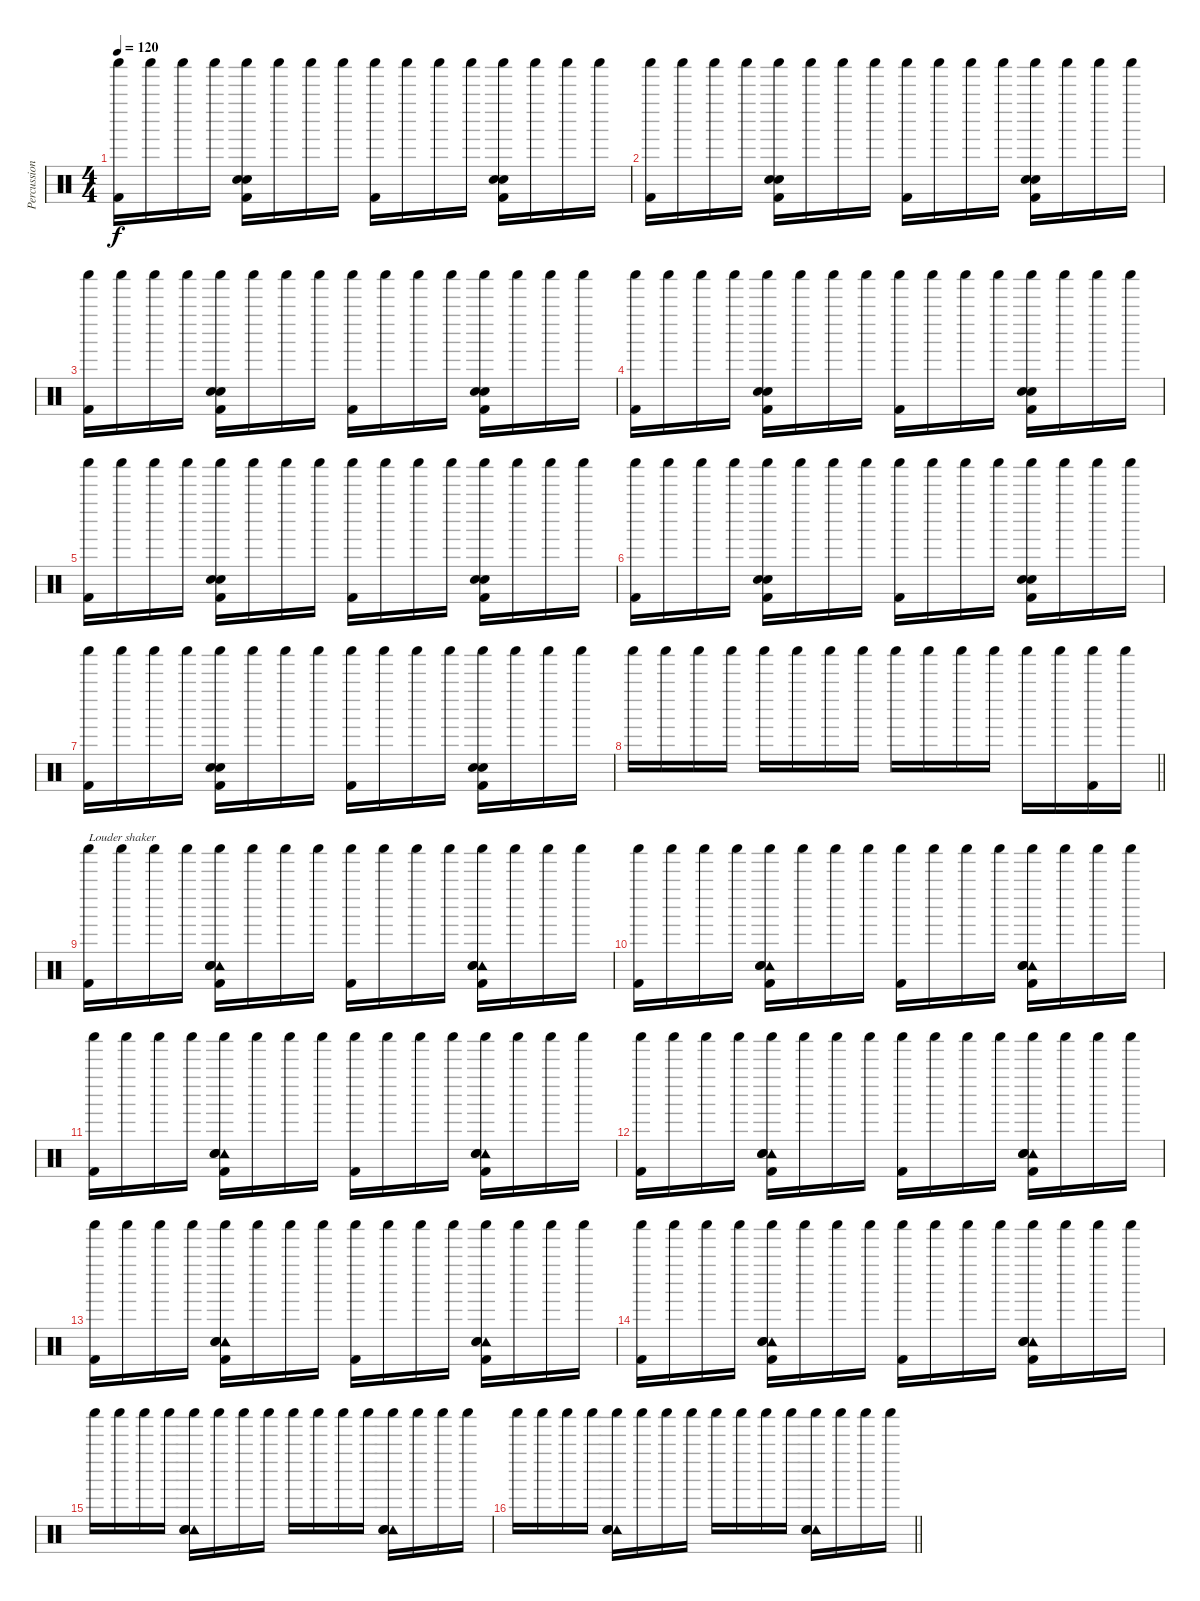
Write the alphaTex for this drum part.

\track ("Percussion" "Percussion") {instrument percussion}
\staff {score}
\articulation defaults
\ts (4 4)
\tempo 120
\clef neutral
\ks c
("Shaker (hit)" "Kick (hit) 2").16{dy f} "Shaker (hit)".16 "Shaker (hit)".16 "Shaker (hit)".16 ("Shaker (hit)" "Hand Clap (hit)" "Electric Snare (hit)" "Kick (hit) 2").16 "Shaker (hit)".16 "Shaker (hit)".16 "Shaker (hit)".16 ("Shaker (hit)" "Kick (hit) 2").16 "Shaker (hit)".16 "Shaker (hit)".16 "Shaker (hit)".16 ("Shaker (hit)" "Hand Clap (hit)" "Electric Snare (hit)" "Kick (hit) 2").16 "Shaker (hit)".16 "Shaker (hit)".16 "Shaker (hit)".16 |
("Shaker (hit)" "Kick (hit) 2").16 "Shaker (hit)".16 "Shaker (hit)".16 "Shaker (hit)".16 ("Shaker (hit)" "Hand Clap (hit)" "Electric Snare (hit)" "Kick (hit) 2").16 "Shaker (hit)".16 "Shaker (hit)".16 "Shaker (hit)".16 ("Shaker (hit)" "Kick (hit) 2").16 "Shaker (hit)".16 "Shaker (hit)".16 "Shaker (hit)".16 ("Shaker (hit)" "Hand Clap (hit)" "Electric Snare (hit)" "Kick (hit) 2").16 "Shaker (hit)".16 "Shaker (hit)".16 "Shaker (hit)".16 |
("Shaker (hit)" "Kick (hit) 2").16 "Shaker (hit)".16 "Shaker (hit)".16 "Shaker (hit)".16 ("Shaker (hit)" "Hand Clap (hit)" "Electric Snare (hit)" "Kick (hit) 2").16 "Shaker (hit)".16 "Shaker (hit)".16 "Shaker (hit)".16 ("Shaker (hit)" "Kick (hit) 2").16 "Shaker (hit)".16 "Shaker (hit)".16 "Shaker (hit)".16 ("Shaker (hit)" "Hand Clap (hit)" "Electric Snare (hit)" "Kick (hit) 2").16 "Shaker (hit)".16 "Shaker (hit)".16 "Shaker (hit)".16 |
("Shaker (hit)" "Kick (hit) 2").16 "Shaker (hit)".16 "Shaker (hit)".16 "Shaker (hit)".16 ("Shaker (hit)" "Hand Clap (hit)" "Electric Snare (hit)" "Kick (hit) 2").16 "Shaker (hit)".16 "Shaker (hit)".16 "Shaker (hit)".16 ("Shaker (hit)" "Kick (hit) 2").16 "Shaker (hit)".16 "Shaker (hit)".16 "Shaker (hit)".16 ("Shaker (hit)" "Hand Clap (hit)" "Electric Snare (hit)" "Kick (hit) 2").16 "Shaker (hit)".16 "Shaker (hit)".16 "Shaker (hit)".16 |
("Shaker (hit)" "Kick (hit) 2").16 "Shaker (hit)".16 "Shaker (hit)".16 "Shaker (hit)".16 ("Shaker (hit)" "Hand Clap (hit)" "Electric Snare (hit)" "Kick (hit) 2").16 "Shaker (hit)".16 "Shaker (hit)".16 "Shaker (hit)".16 ("Shaker (hit)" "Kick (hit) 2").16 "Shaker (hit)".16 "Shaker (hit)".16 "Shaker (hit)".16 ("Shaker (hit)" "Hand Clap (hit)" "Electric Snare (hit)" "Kick (hit) 2").16 "Shaker (hit)".16 "Shaker (hit)".16 "Shaker (hit)".16 |
("Shaker (hit)" "Kick (hit) 2").16 "Shaker (hit)".16 "Shaker (hit)".16 "Shaker (hit)".16 ("Shaker (hit)" "Hand Clap (hit)" "Electric Snare (hit)" "Kick (hit) 2").16 "Shaker (hit)".16 "Shaker (hit)".16 "Shaker (hit)".16 ("Shaker (hit)" "Kick (hit) 2").16 "Shaker (hit)".16 "Shaker (hit)".16 "Shaker (hit)".16 ("Shaker (hit)" "Hand Clap (hit)" "Electric Snare (hit)" "Kick (hit) 2").16 "Shaker (hit)".16 "Shaker (hit)".16 "Shaker (hit)".16 |
("Shaker (hit)" "Kick (hit) 2").16 "Shaker (hit)".16 "Shaker (hit)".16 "Shaker (hit)".16 ("Shaker (hit)" "Hand Clap (hit)" "Electric Snare (hit)" "Kick (hit) 2").16 "Shaker (hit)".16 "Shaker (hit)".16 "Shaker (hit)".16 ("Shaker (hit)" "Kick (hit) 2").16 "Shaker (hit)".16 "Shaker (hit)".16 "Shaker (hit)".16 ("Shaker (hit)" "Hand Clap (hit)" "Electric Snare (hit)" "Kick (hit) 2").16 "Shaker (hit)".16 "Shaker (hit)".16 "Shaker (hit)".16 |
\barLineRight lightlight "Shaker (hit)".16 "Shaker (hit)".16 "Shaker (hit)".16 "Shaker (hit)".16 "Shaker (hit)".16 "Shaker (hit)".16 "Shaker (hit)".16 "Shaker (hit)".16 "Shaker (hit)".16 "Shaker (hit)".16 "Shaker (hit)".16 "Shaker (hit)".16 "Shaker (hit)".16 "Shaker (hit)".16
("Shaker (hit)" "Kick (hit) 2").16 "Shaker (hit)".16 |
("Shaker (hit)" "Kick (hit) 2").16{txt "Louder shaker"} "Shaker (hit)".16 "Shaker (hit)".16 "Shaker (hit)".16 ("Shaker (hit)" "Tambourine (hit)" "Hand Clap (hit)" "Electric Snare (hit)" "Kick (hit) 2").16 "Shaker (hit)".16 "Shaker (hit)".16 "Shaker (hit)".16 ("Shaker (hit)" "Kick (hit) 2").16 "Shaker (hit)".16 "Shaker (hit)".16 "Shaker (hit)".16 ("Shaker (hit)" "Tambourine (hit)" "Hand Clap (hit)" "Electric Snare (hit)" "Kick (hit) 2").16 "Shaker (hit)".16 "Shaker (hit)".16 "Shaker (hit)".16 |
("Shaker (hit)" "Kick (hit) 2").16 "Shaker (hit)".16 "Shaker (hit)".16 "Shaker (hit)".16 ("Shaker (hit)" "Tambourine (hit)" "Hand Clap (hit)" "Electric Snare (hit)" "Kick (hit) 2").16 "Shaker (hit)".16 "Shaker (hit)".16 "Shaker (hit)".16 ("Shaker (hit)" "Kick (hit) 2").16 "Shaker (hit)".16 "Shaker (hit)".16 "Shaker (hit)".16 ("Shaker (hit)" "Tambourine (hit)" "Hand Clap (hit)" "Electric Snare (hit)" "Kick (hit) 2").16 "Shaker (hit)".16 "Shaker (hit)".16 "Shaker (hit)".16 |
("Shaker (hit)" "Kick (hit) 2").16 "Shaker (hit)".16 "Shaker (hit)".16 "Shaker (hit)".16 ("Shaker (hit)" "Tambourine (hit)" "Hand Clap (hit)" "Electric Snare (hit)" "Kick (hit) 2").16 "Shaker (hit)".16 "Shaker (hit)".16 "Shaker (hit)".16 ("Shaker (hit)" "Kick (hit) 2").16 "Shaker (hit)".16 "Shaker (hit)".16 "Shaker (hit)".16 ("Shaker (hit)" "Tambourine (hit)" "Hand Clap (hit)" "Electric Snare (hit)" "Kick (hit) 2").16 "Shaker (hit)".16 "Shaker (hit)".16 "Shaker (hit)".16 |
("Shaker (hit)" "Kick (hit) 2").16 "Shaker (hit)".16 "Shaker (hit)".16 "Shaker (hit)".16 ("Shaker (hit)" "Tambourine (hit)" "Hand Clap (hit)" "Electric Snare (hit)" "Kick (hit) 2").16 "Shaker (hit)".16 "Shaker (hit)".16 "Shaker (hit)".16 ("Shaker (hit)" "Kick (hit) 2").16 "Shaker (hit)".16 "Shaker (hit)".16 "Shaker (hit)".16 ("Shaker (hit)" "Tambourine (hit)" "Hand Clap (hit)" "Electric Snare (hit)" "Kick (hit) 2").16 "Shaker (hit)".16 "Shaker (hit)".16 "Shaker (hit)".16 |
("Shaker (hit)" "Kick (hit) 2").16 "Shaker (hit)".16 "Shaker (hit)".16 "Shaker (hit)".16 ("Shaker (hit)" "Tambourine (hit)" "Hand Clap (hit)" "Electric Snare (hit)" "Kick (hit) 2").16 "Shaker (hit)".16 "Shaker (hit)".16 "Shaker (hit)".16 ("Shaker (hit)" "Kick (hit) 2").16 "Shaker (hit)".16 "Shaker (hit)".16 "Shaker (hit)".16 ("Shaker (hit)" "Tambourine (hit)" "Hand Clap (hit)" "Electric Snare (hit)" "Kick (hit) 2").16 "Shaker (hit)".16 "Shaker (hit)".16 "Shaker (hit)".16 |
("Shaker (hit)" "Kick (hit) 2").16 "Shaker (hit)".16 "Shaker (hit)".16 "Shaker (hit)".16 ("Shaker (hit)" "Tambourine (hit)" "Hand Clap (hit)" "Electric Snare (hit)" "Kick (hit) 2").16 "Shaker (hit)".16 "Shaker (hit)".16 "Shaker (hit)".16 ("Shaker (hit)" "Kick (hit) 2").16 "Shaker (hit)".16 "Shaker (hit)".16 "Shaker (hit)".16 ("Shaker (hit)" "Tambourine (hit)" "Hand Clap (hit)" "Electric Snare (hit)" "Kick (hit) 2").16 "Shaker (hit)".16 "Shaker (hit)".16 "Shaker (hit)".16 |
"Shaker (hit)".16 "Shaker (hit)".16 "Shaker (hit)".16 "Shaker (hit)".16 ("Shaker (hit)" "Tambourine (hit)" "Hand Clap (hit)" "Electric Snare (hit)").16 "Shaker (hit)".16 "Shaker (hit)".16 "Shaker (hit)".16 "Shaker (hit)".16 "Shaker (hit)".16 "Shaker (hit)".16 "Shaker (hit)".16 ("Shaker (hit)" "Tambourine (hit)" "Hand Clap (hit)" "Electric Snare (hit)").16 "Shaker (hit)".16 "Shaker (hit)".16 "Shaker (hit)".16 |
\barLineRight lightlight "Shaker (hit)".16 "Shaker (hit)".16 "Shaker (hit)".16 "Shaker (hit)".16
("Shaker (hit)" "Tambourine (hit)" "Hand Clap (hit)" "Electric Snare (hit)").16 "Shaker (hit)".16 "Shaker (hit)".16 "Shaker (hit)".16 "Shaker (hit)".16 "Shaker (hit)".16 "Shaker (hit)".16 "Shaker (hit)".16 ("Shaker (hit)" "Tambourine (hit)" "Hand Clap (hit)" "Electric Snare (hit)").16 "Shaker (hit)".16 "Shaker (hit)".16 "Shaker (hit)".16
